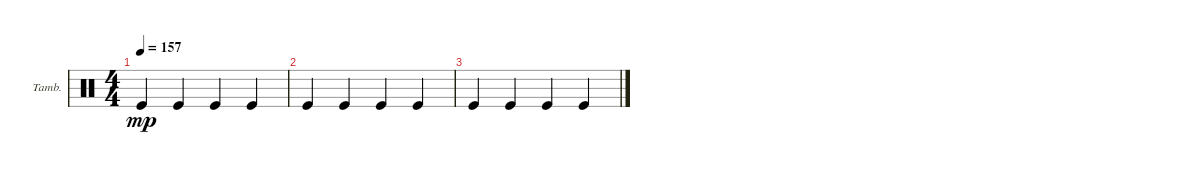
\defaultSystemsLayout 4
\bracketExtendMode groupsimilarinstruments
\firstSystemTrackNameOrientation horizontal
\otherSystemsTrackNameOrientation horizontal
\track ("Tambourine" "Tamb.") {instrument percussion}
\staff {score}
\articulation defaults
\ts (4 4)
\tempo 157
\clef neutral
\ks c "Kick (hit)".4{dy mp} "Kick (hit)".4 "Kick (hit)".4 "Kick (hit)".4
|
"Kick (hit)".4 "Kick (hit)".4 "Kick (hit)".4 "Kick (hit)".4 |
"Kick (hit)".4 "Kick (hit)".4 "Kick (hit)".4 "Kick (hit)".4
